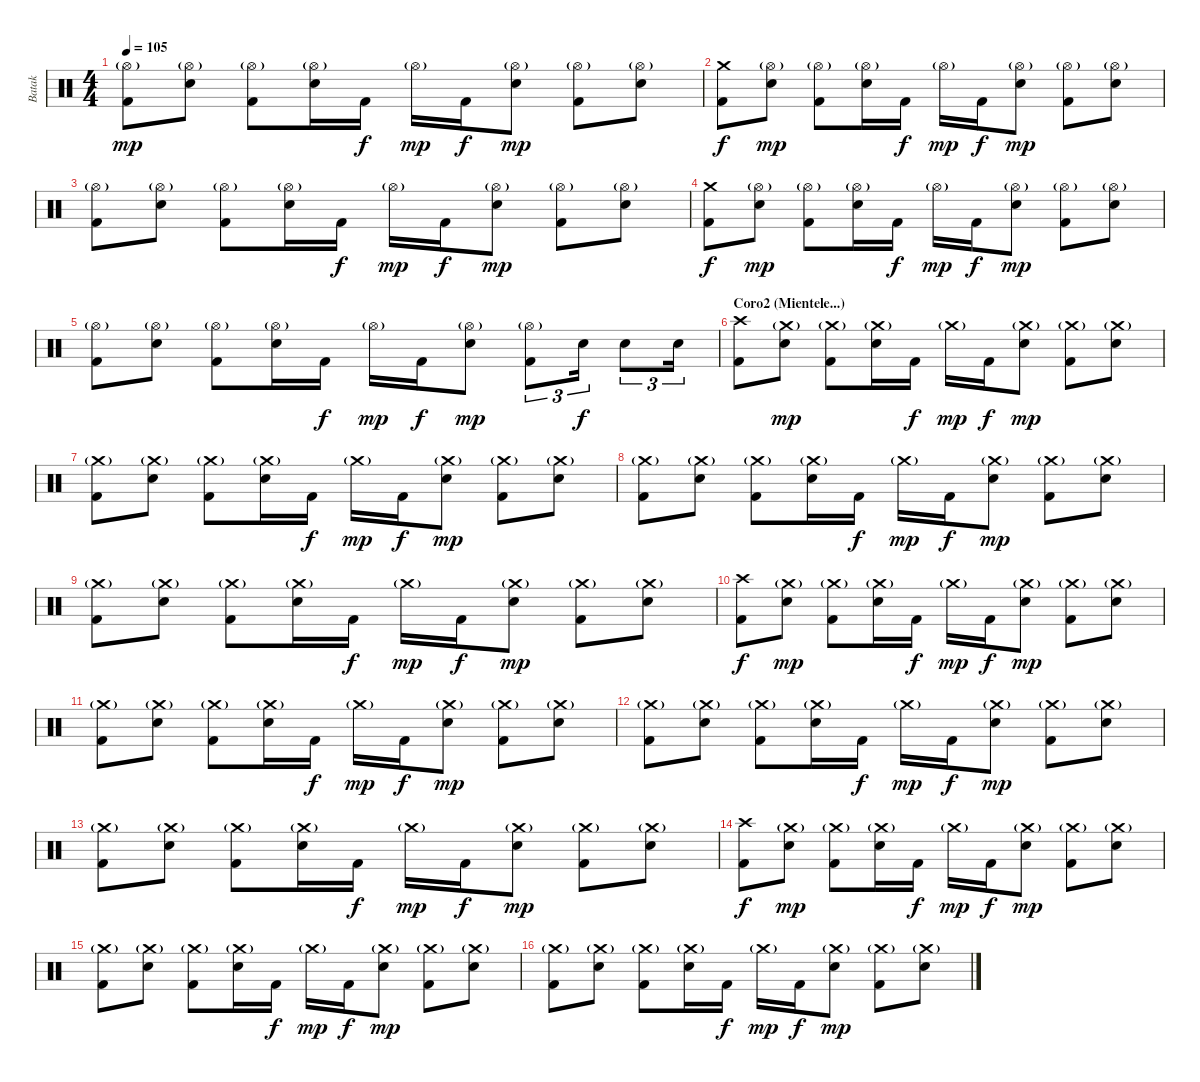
\track ("Batak" "Batak") {instrument percussion}
\staff {score}
\articulation defaults
\ts (4 4)
\tempo 105
\clef neutral
\ks c
("Hi-Hat (open)"{g} "Kick (hit) 2").8{dy mp} ("Hi-Hat (open)"{g} "Electric Snare (hit)").8 ("Hi-Hat (open)"{g} "Kick (hit) 2").8 ("Hi-Hat (open)"{g} "Electric Snare (hit)").16 "Kick (hit) 2".16{dy f} "Hi-Hat (open)"{g}.16{dy mp} "Kick (hit) 2".16{dy f} ("Hi-Hat (open)"{g} "Electric Snare (hit)").8{dy mp} ("Hi-Hat (open)"{g} "Kick (hit) 2").8 ("Hi-Hat (open)"{g} "Electric Snare (hit)").8 |
("Crash medium (hit)" "Kick (hit) 2").8{dy f} ("Hi-Hat (open)"{g} "Electric Snare (hit)").8{dy mp} ("Hi-Hat (open)"{g} "Kick (hit) 2").8 ("Hi-Hat (open)"{g} "Electric Snare (hit)").16 "Kick (hit) 2".16{dy f} "Hi-Hat (open)"{g}.16{dy mp} "Kick (hit) 2".16{dy f} ("Hi-Hat (open)"{g} "Electric Snare (hit)").8{dy mp} ("Hi-Hat (open)"{g} "Kick (hit) 2").8 ("Hi-Hat (open)"{g} "Electric Snare (hit)").8 |
("Hi-Hat (open)"{g} "Kick (hit) 2").8 ("Hi-Hat (open)"{g} "Electric Snare (hit)").8 ("Hi-Hat (open)"{g} "Kick (hit) 2").8 ("Hi-Hat (open)"{g} "Electric Snare (hit)").16 "Kick (hit) 2".16{dy f} "Hi-Hat (open)"{g}.16{dy mp} "Kick (hit) 2".16{dy f} ("Hi-Hat (open)"{g} "Electric Snare (hit)").8{dy mp} ("Hi-Hat (open)"{g} "Kick (hit) 2").8 ("Hi-Hat (open)"{g} "Electric Snare (hit)").8 |
("Crash medium (hit)" "Kick (hit) 2").8{dy f} ("Hi-Hat (open)"{g} "Electric Snare (hit)").8{dy mp} ("Hi-Hat (open)"{g} "Kick (hit) 2").8 ("Hi-Hat (open)"{g} "Electric Snare (hit)").16 "Kick (hit) 2".16{dy f} "Hi-Hat (open)"{g}.16{dy mp} "Kick (hit) 2".16{dy f} ("Hi-Hat (open)"{g} "Electric Snare (hit)").8{dy mp} ("Hi-Hat (open)"{g} "Kick (hit) 2").8 ("Hi-Hat (open)"{g} "Electric Snare (hit)").8 |
("Hi-Hat (open)"{g} "Kick (hit) 2").8 ("Hi-Hat (open)"{g} "Electric Snare (hit)").8 ("Hi-Hat (open)"{g} "Kick (hit) 2").8 ("Hi-Hat (open)"{g} "Electric Snare (hit)").16 "Kick (hit) 2".16{dy f} "Hi-Hat (open)"{g}.16{dy mp} "Kick (hit) 2".16{dy f} ("Hi-Hat (open)"{g} "Electric Snare (hit)").8{dy mp} ("Hi-Hat (open)"{g} "Kick (hit) 2").8{tu (3 2)} "Electric Snare (hit)".16{tu (3 2) dy f} "Electric Snare (hit)".8{tu (3 2)} "Electric Snare (hit)".16{tu (3 2)} |
\section ("" "Coro2 (Mientele...)")
("Crash high (hit)" "Kick (hit) 2").8 ("Crash medium (hit)"{g} "Electric Snare (hit)").8{dy mp} ("Crash medium (hit)"{g} "Kick (hit) 2").8 ("Crash medium (hit)"{g} "Electric Snare (hit)").16 "Kick (hit) 2".16{dy f} "Crash medium (hit)"{g}.16{dy mp} "Kick (hit) 2".16{dy f} ("Crash medium (hit)"{g} "Electric Snare (hit)").8{dy mp} ("Crash medium (hit)"{g} "Kick (hit) 2").8 ("Crash medium (hit)"{g} "Electric Snare (hit)").8 |
("Crash medium (hit)"{g} "Kick (hit) 2").8 ("Crash medium (hit)"{g} "Electric Snare (hit)").8 ("Crash medium (hit)"{g} "Kick (hit) 2").8 ("Crash medium (hit)"{g} "Electric Snare (hit)").16 "Kick (hit) 2".16{dy f} "Crash medium (hit)"{g}.16{dy mp} "Kick (hit) 2".16{dy f} ("Crash medium (hit)"{g} "Electric Snare (hit)").8{dy mp} ("Crash medium (hit)"{g} "Kick (hit) 2").8 ("Crash medium (hit)"{g} "Electric Snare (hit)").8 |
("Crash medium (hit)"{g} "Kick (hit) 2").8 ("Crash medium (hit)"{g} "Electric Snare (hit)").8 ("Crash medium (hit)"{g} "Kick (hit) 2").8 ("Crash medium (hit)"{g} "Electric Snare (hit)").16 "Kick (hit) 2".16{dy f} "Crash medium (hit)"{g}.16{dy mp} "Kick (hit) 2".16{dy f} ("Crash medium (hit)"{g} "Electric Snare (hit)").8{dy mp} ("Crash medium (hit)"{g} "Kick (hit) 2").8 ("Crash medium (hit)"{g} "Electric Snare (hit)").8 |
("Crash medium (hit)"{g} "Kick (hit) 2").8 ("Crash medium (hit)"{g} "Electric Snare (hit)").8 ("Crash medium (hit)"{g} "Kick (hit) 2").8 ("Crash medium (hit)"{g} "Electric Snare (hit)").16 "Kick (hit) 2".16{dy f} "Crash medium (hit)"{g}.16{dy mp} "Kick (hit) 2".16{dy f} ("Crash medium (hit)"{g} "Electric Snare (hit)").8{dy mp} ("Crash medium (hit)"{g} "Kick (hit) 2").8 ("Crash medium (hit)"{g} "Electric Snare (hit)").8 |
("Crash high (hit)" "Kick (hit) 2").8{dy f} ("Crash medium (hit)"{g} "Electric Snare (hit)").8{dy mp} ("Crash medium (hit)"{g} "Kick (hit) 2").8 ("Crash medium (hit)"{g} "Electric Snare (hit)").16 "Kick (hit) 2".16{dy f} "Crash medium (hit)"{g}.16{dy mp} "Kick (hit) 2".16{dy f} ("Crash medium (hit)"{g} "Electric Snare (hit)").8{dy mp} ("Crash medium (hit)"{g} "Kick (hit) 2").8 ("Crash medium (hit)"{g} "Electric Snare (hit)").8 |
("Crash medium (hit)"{g} "Kick (hit) 2").8 ("Crash medium (hit)"{g} "Electric Snare (hit)").8 ("Crash medium (hit)"{g} "Kick (hit) 2").8 ("Crash medium (hit)"{g} "Electric Snare (hit)").16 "Kick (hit) 2".16{dy f} "Crash medium (hit)"{g}.16{dy mp} "Kick (hit) 2".16{dy f} ("Crash medium (hit)"{g} "Electric Snare (hit)").8{dy mp} ("Crash medium (hit)"{g} "Kick (hit) 2").8 ("Crash medium (hit)"{g} "Electric Snare (hit)").8 |
("Crash medium (hit)"{g} "Kick (hit) 2").8 ("Crash medium (hit)"{g} "Electric Snare (hit)").8 ("Crash medium (hit)"{g} "Kick (hit) 2").8 ("Crash medium (hit)"{g} "Electric Snare (hit)").16 "Kick (hit) 2".16{dy f} "Crash medium (hit)"{g}.16{dy mp} "Kick (hit) 2".16{dy f} ("Crash medium (hit)"{g} "Electric Snare (hit)").8{dy mp} ("Crash medium (hit)"{g} "Kick (hit) 2").8 ("Crash medium (hit)"{g} "Electric Snare (hit)").8 |
("Crash medium (hit)"{g} "Kick (hit) 2").8 ("Crash medium (hit)"{g} "Electric Snare (hit)").8 ("Crash medium (hit)"{g} "Kick (hit) 2").8 ("Crash medium (hit)"{g} "Electric Snare (hit)").16 "Kick (hit) 2".16{dy f} "Crash medium (hit)"{g}.16{dy mp} "Kick (hit) 2".16{dy f} ("Crash medium (hit)"{g} "Electric Snare (hit)").8{dy mp} ("Crash medium (hit)"{g} "Kick (hit) 2").8 ("Crash medium (hit)"{g} "Electric Snare (hit)").8 |
("Crash high (hit)" "Kick (hit) 2").8{dy f} ("Crash medium (hit)"{g} "Electric Snare (hit)").8{dy mp} ("Crash medium (hit)"{g} "Kick (hit) 2").8 ("Crash medium (hit)"{g} "Electric Snare (hit)").16 "Kick (hit) 2".16{dy f} "Crash medium (hit)"{g}.16{dy mp} "Kick (hit) 2".16{dy f} ("Crash medium (hit)"{g} "Electric Snare (hit)").8{dy mp} ("Crash medium (hit)"{g} "Kick (hit) 2").8 ("Crash medium (hit)"{g} "Electric Snare (hit)").8 |
("Crash medium (hit)"{g} "Kick (hit) 2").8 ("Crash medium (hit)"{g} "Electric Snare (hit)").8 ("Crash medium (hit)"{g} "Kick (hit) 2").8 ("Crash medium (hit)"{g} "Electric Snare (hit)").16 "Kick (hit) 2".16{dy f} "Crash medium (hit)"{g}.16{dy mp} "Kick (hit) 2".16{dy f} ("Crash medium (hit)"{g} "Electric Snare (hit)").8{dy mp} ("Crash medium (hit)"{g} "Kick (hit) 2").8 ("Crash medium (hit)"{g} "Electric Snare (hit)").8 |
("Crash medium (hit)"{g} "Kick (hit) 2").8 ("Crash medium (hit)"{g} "Electric Snare (hit)").8 ("Crash medium (hit)"{g} "Kick (hit) 2").8 ("Crash medium (hit)"{g} "Electric Snare (hit)").16 "Kick (hit) 2".16{dy f} "Crash medium (hit)"{g}.16{dy mp} "Kick (hit) 2".16{dy f} ("Crash medium (hit)"{g} "Electric Snare (hit)").8{dy mp} ("Crash medium (hit)"{g} "Kick (hit) 2").8 ("Crash medium (hit)"{g} "Electric Snare (hit)").8
